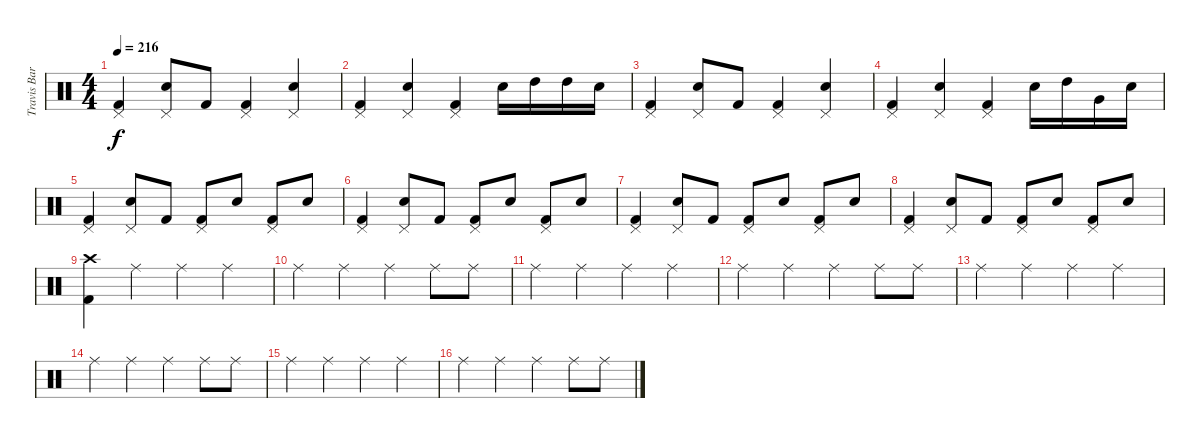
\track ("Travis Barker (Drums)" "Travis Bar") {instrument percussion}
\staff {score}
\articulation defaults
\ts (4 4)
\tempo 216
\clef neutral
\ks c
("Pedal Hi-Hat (hit)" "Kick (hit) 2").4{dy f} ("Pedal Hi-Hat (hit)" "Electric Snare (hit)").8 "Kick (hit) 2".8 ("Pedal Hi-Hat (hit)" "Kick (hit) 2").4 ("Pedal Hi-Hat (hit)" "Electric Snare (hit)").4 |
("Pedal Hi-Hat (hit)" "Kick (hit) 2").4 ("Pedal Hi-Hat (hit)" "Electric Snare (hit)").4 ("Pedal Hi-Hat (hit)" "Kick (hit) 2").4 "Electric Snare (hit)".16 "High Tom (hit)".16 "High Tom (hit)".16 "Electric Snare (hit)".16 |
("Pedal Hi-Hat (hit)" "Kick (hit) 2").4 ("Pedal Hi-Hat (hit)" "Electric Snare (hit)").8 "Kick (hit) 2".8 ("Pedal Hi-Hat (hit)" "Kick (hit) 2").4 ("Pedal Hi-Hat (hit)" "Electric Snare (hit)").4 |
("Pedal Hi-Hat (hit)" "Kick (hit) 2").4 ("Pedal Hi-Hat (hit)" "Electric Snare (hit)").4 ("Pedal Hi-Hat (hit)" "Kick (hit) 2").4 "Electric Snare (hit)".16 "High Tom (hit)".16 "Very Low Tom (hit)".16 "Electric Snare (hit)".16 |
("Pedal Hi-Hat (hit)" "Kick (hit) 2").4 ("Pedal Hi-Hat (hit)" "Electric Snare (hit)").8 "Kick (hit) 2".8 ("Pedal Hi-Hat (hit)" "Kick (hit) 2").8 "Electric Snare (hit)".8 ("Pedal Hi-Hat (hit)" "Kick (hit) 2").8 "Electric Snare (hit)".8 |
("Pedal Hi-Hat (hit)" "Kick (hit) 2").4 ("Pedal Hi-Hat (hit)" "Electric Snare (hit)").8 "Kick (hit) 2".8 ("Pedal Hi-Hat (hit)" "Kick (hit) 2").8 "Electric Snare (hit)".8 ("Pedal Hi-Hat (hit)" "Kick (hit) 2").8 "Electric Snare (hit)".8 |
("Pedal Hi-Hat (hit)" "Kick (hit) 2").4 ("Pedal Hi-Hat (hit)" "Electric Snare (hit)").8 "Kick (hit) 2".8 ("Pedal Hi-Hat (hit)" "Kick (hit) 2").8 "Electric Snare (hit)".8 ("Pedal Hi-Hat (hit)" "Kick (hit) 2").8 "Electric Snare (hit)".8 |
("Pedal Hi-Hat (hit)" "Kick (hit) 2").4 ("Pedal Hi-Hat (hit)" "Electric Snare (hit)").8 "Kick (hit) 2".8 ("Pedal Hi-Hat (hit)" "Kick (hit) 2").8 "Electric Snare (hit)".8 ("Pedal Hi-Hat (hit)" "Kick (hit) 2").8 "Electric Snare (hit)".8 |
("Crash high (hit)" "Kick (hit) 2").4 "Ride (middle)".4 "Ride (middle)".4 "Ride (middle)".4 |
"Ride (middle)".4 "Ride (middle)".4 "Ride (middle)".4 "Ride (middle)".8 "Ride (middle)".8 |
"Ride (middle)".4 "Ride (middle)".4 "Ride (middle)".4 "Ride (middle)".4 |
"Ride (middle)".4 "Ride (middle)".4 "Ride (middle)".4 "Ride (middle)".8 "Ride (middle)".8 |
"Ride (middle)".4 "Ride (middle)".4 "Ride (middle)".4 "Ride (middle)".4 |
"Ride (middle)".4 "Ride (middle)".4 "Ride (middle)".4 "Ride (middle)".8 "Ride (middle)".8 |
"Ride (middle)".4 "Ride (middle)".4 "Ride (middle)".4 "Ride (middle)".4 |
"Ride (middle)".4 "Ride (middle)".4 "Ride (middle)".4 "Ride (middle)".8 "Ride (middle)".8
